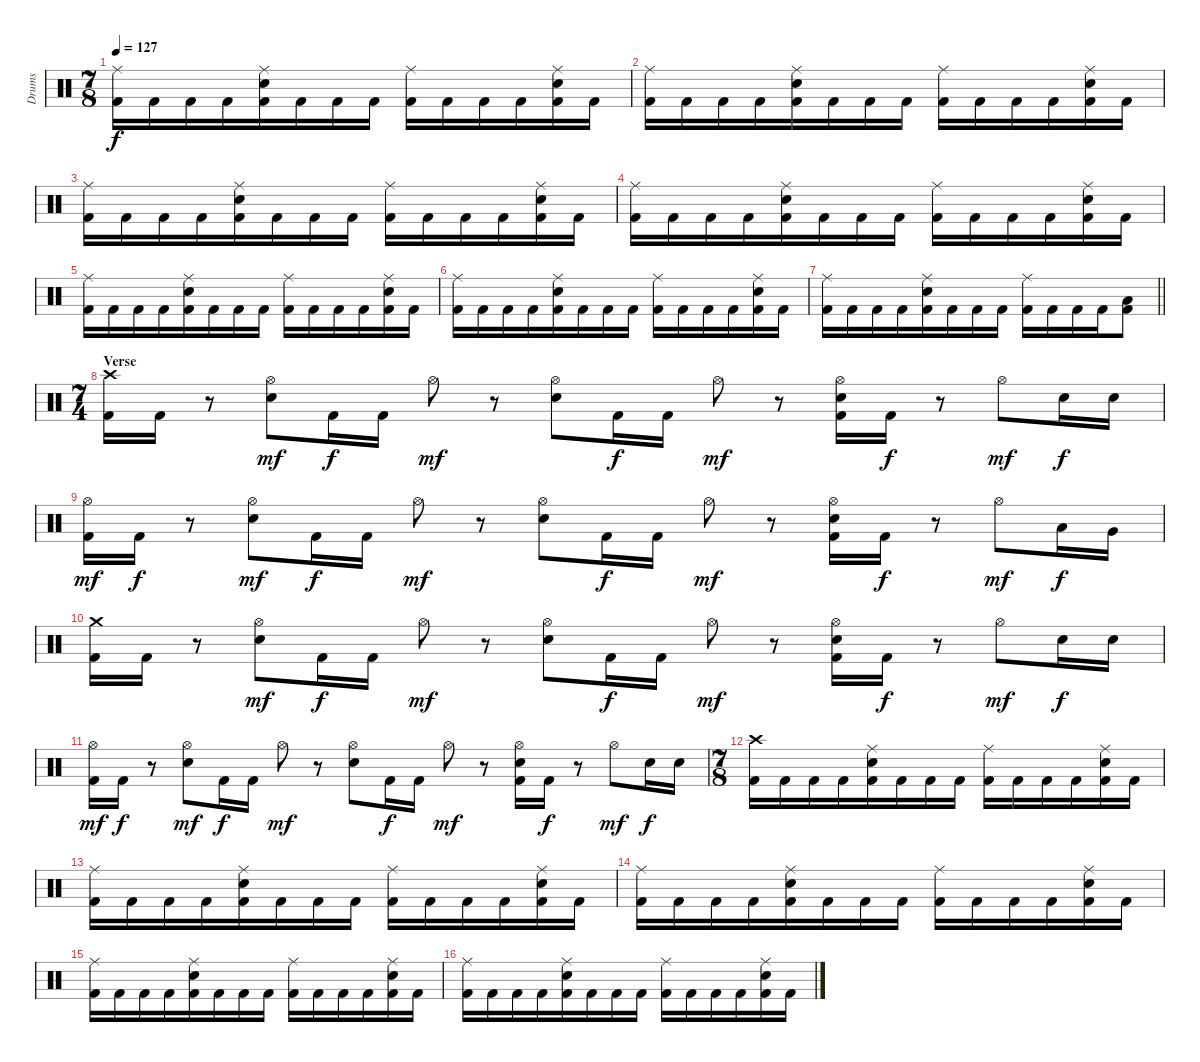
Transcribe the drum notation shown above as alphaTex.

\track ("Drums" "Drums") {instrument percussion}
\staff {score}
\articulation defaults
\ts (7 8)
\tempo 127
\clef neutral
\ks c
("Kick (hit) 2" "Ride (middle)").16{dy f} "Kick (hit) 2".16 "Kick (hit) 2".16 "Kick (hit) 2".16 ("Kick (hit) 2" "Ride (middle)" "Electric Snare (hit)").16 "Kick (hit) 2".16 "Kick (hit) 2".16 "Kick (hit) 2".16 ("Kick (hit) 2" "Ride (middle)").16 "Kick (hit) 2".16 "Kick (hit) 2".16 "Kick (hit) 2".16 ("Kick (hit) 2" "Ride (middle)" "Electric Snare (hit)").16 "Kick (hit) 2".16 |
("Kick (hit) 2" "Ride (middle)").16 "Kick (hit) 2".16 "Kick (hit) 2".16 "Kick (hit) 2".16 ("Kick (hit) 2" "Ride (middle)" "Electric Snare (hit)").16 "Kick (hit) 2".16 "Kick (hit) 2".16 "Kick (hit) 2".16 ("Kick (hit) 2" "Ride (middle)").16 "Kick (hit) 2".16 "Kick (hit) 2".16 "Kick (hit) 2".16 ("Kick (hit) 2" "Ride (middle)" "Electric Snare (hit)").16 "Kick (hit) 2".16 |
("Kick (hit) 2" "Ride (middle)").16 "Kick (hit) 2".16 "Kick (hit) 2".16 "Kick (hit) 2".16 ("Kick (hit) 2" "Ride (middle)" "Electric Snare (hit)").16 "Kick (hit) 2".16 "Kick (hit) 2".16 "Kick (hit) 2".16 ("Kick (hit) 2" "Ride (middle)").16 "Kick (hit) 2".16 "Kick (hit) 2".16 "Kick (hit) 2".16 ("Kick (hit) 2" "Ride (middle)" "Electric Snare (hit)").16 "Kick (hit) 2".16 |
("Kick (hit) 2" "Ride (middle)").16 "Kick (hit) 2".16 "Kick (hit) 2".16 "Kick (hit) 2".16 ("Kick (hit) 2" "Ride (middle)" "Electric Snare (hit)").16 "Kick (hit) 2".16 "Kick (hit) 2".16 "Kick (hit) 2".16 ("Kick (hit) 2" "Ride (middle)").16 "Kick (hit) 2".16 "Kick (hit) 2".16 "Kick (hit) 2".16 ("Kick (hit) 2" "Ride (middle)" "Electric Snare (hit)").16 "Kick (hit) 2".16 |
("Kick (hit) 2" "Ride (middle)").16 "Kick (hit) 2".16 "Kick (hit) 2".16 "Kick (hit) 2".16 ("Kick (hit) 2" "Ride (middle)" "Electric Snare (hit)").16 "Kick (hit) 2".16 "Kick (hit) 2".16 "Kick (hit) 2".16 ("Kick (hit) 2" "Ride (middle)").16 "Kick (hit) 2".16 "Kick (hit) 2".16 "Kick (hit) 2".16 ("Kick (hit) 2" "Ride (middle)" "Electric Snare (hit)").16 "Kick (hit) 2".16 |
("Kick (hit) 2" "Ride (middle)").16 "Kick (hit) 2".16 "Kick (hit) 2".16 "Kick (hit) 2".16 ("Kick (hit) 2" "Ride (middle)" "Electric Snare (hit)").16 "Kick (hit) 2".16 "Kick (hit) 2".16 "Kick (hit) 2".16 ("Kick (hit) 2" "Ride (middle)").16 "Kick (hit) 2".16 "Kick (hit) 2".16 "Kick (hit) 2".16 ("Kick (hit) 2" "Ride (middle)" "Electric Snare (hit)").16 "Kick (hit) 2".16 |
\barLineRight lightlight
("Kick (hit) 2" "Ride (middle)").16 "Kick (hit) 2".16 "Kick (hit) 2".16 "Kick (hit) 2".16 ("Kick (hit) 2" "Ride (middle)" "Electric Snare (hit)").16 "Kick (hit) 2".16 "Kick (hit) 2".16 "Kick (hit) 2".16 ("Kick (hit) 2" "Ride (middle)").16 "Kick (hit) 2".16 "Kick (hit) 2".16 "Kick (hit) 2".16 ("Kick (hit) 2" "Low Floor Tom (hit)").8 |
\ts (7 4)
\section ("" "Verse")
("Kick (hit) 2" "Crash high (hit)").16 "Kick (hit) 2".16 r.8 ("Hi-Hat (open)" "Electric Snare (hit)").8{dy mf} "Kick (hit) 2".16{dy f} "Kick (hit) 2".16 "Hi-Hat (open)".8{dy mf} r.8 ("Hi-Hat (open)" "Electric Snare (hit)").8 "Kick (hit) 2".16{dy f} "Kick (hit) 2".16 "Hi-Hat (open)".8{dy mf} r.8 ("Kick (hit) 2" "Hi-Hat (open)" "Electric Snare (hit)").16 "Kick (hit) 2".16{dy f} r.8 "Hi-Hat (open)".8{dy mf} "Electric Snare (hit)".16{dy f} "Electric Snare (hit)".16 |
("Kick (hit) 2" "Hi-Hat (open)").16{dy mf} "Kick (hit) 2".16{dy f} r.8 ("Hi-Hat (open)" "Electric Snare (hit)").8{dy mf} "Kick (hit) 2".16{dy f} "Kick (hit) 2".16 "Hi-Hat (open)".8{dy mf} r.8 ("Hi-Hat (open)" "Electric Snare (hit)").8 "Kick (hit) 2".16{dy f} "Kick (hit) 2".16 "Hi-Hat (open)".8{dy mf} r.8 ("Kick (hit) 2" "Hi-Hat (open)" "Electric Snare (hit)").16 "Kick (hit) 2".16{dy f} r.8 "Hi-Hat (open)".8{dy mf} "Low Tom (hit)".16{dy f} "Very Low Tom (hit)".16 |
("Kick (hit) 2" "Crash medium (hit)").16 "Kick (hit) 2".16 r.8 ("Hi-Hat (open)" "Electric Snare (hit)").8{dy mf} "Kick (hit) 2".16{dy f} "Kick (hit) 2".16 "Hi-Hat (open)".8{dy mf} r.8 ("Hi-Hat (open)" "Electric Snare (hit)").8 "Kick (hit) 2".16{dy f} "Kick (hit) 2".16 "Hi-Hat (open)".8{dy mf} r.8 ("Kick (hit) 2" "Hi-Hat (open)" "Electric Snare (hit)").16 "Kick (hit) 2".16{dy f} r.8 "Hi-Hat (open)".8{dy mf} "Electric Snare (hit)".16{dy f} "Electric Snare (hit)".16 |
("Kick (hit) 2" "Hi-Hat (open)").16{dy mf} "Kick (hit) 2".16{dy f} r.8 ("Hi-Hat (open)" "Electric Snare (hit)").8{dy mf} "Kick (hit) 2".16{dy f} "Kick (hit) 2".16 "Hi-Hat (open)".8{dy mf} r.8 ("Hi-Hat (open)" "Electric Snare (hit)").8 "Kick (hit) 2".16{dy f} "Kick (hit) 2".16 "Hi-Hat (open)".8{dy mf} r.8 ("Kick (hit) 2" "Hi-Hat (open)" "Electric Snare (hit)").16 "Kick (hit) 2".16{dy f} r.8 "Hi-Hat (open)".8{dy mf} "Electric Snare (hit)".16{dy f} "Electric Snare (hit)".16 |
\ts (7 8)
("Kick (hit) 2" "Crash high (hit)").16 "Kick (hit) 2".16 "Kick (hit) 2".16 "Kick (hit) 2".16 ("Kick (hit) 2" "Ride (middle)" "Electric Snare (hit)").16 "Kick (hit) 2".16 "Kick (hit) 2".16 "Kick (hit) 2".16 ("Kick (hit) 2" "Ride (middle)").16 "Kick (hit) 2".16 "Kick (hit) 2".16 "Kick (hit) 2".16 ("Kick (hit) 2" "Ride (middle)" "Electric Snare (hit)").16 "Kick (hit) 2".16 |
("Kick (hit) 2" "Ride (middle)").16 "Kick (hit) 2".16 "Kick (hit) 2".16 "Kick (hit) 2".16 ("Kick (hit) 2" "Ride (middle)" "Electric Snare (hit)").16 "Kick (hit) 2".16 "Kick (hit) 2".16 "Kick (hit) 2".16 ("Kick (hit) 2" "Ride (middle)").16 "Kick (hit) 2".16 "Kick (hit) 2".16 "Kick (hit) 2".16 ("Kick (hit) 2" "Ride (middle)" "Electric Snare (hit)").16 "Kick (hit) 2".16 |
("Kick (hit) 2" "Ride (middle)").16 "Kick (hit) 2".16 "Kick (hit) 2".16 "Kick (hit) 2".16 ("Kick (hit) 2" "Ride (middle)" "Electric Snare (hit)").16 "Kick (hit) 2".16 "Kick (hit) 2".16 "Kick (hit) 2".16 ("Kick (hit) 2" "Ride (middle)").16 "Kick (hit) 2".16 "Kick (hit) 2".16 "Kick (hit) 2".16 ("Kick (hit) 2" "Ride (middle)" "Electric Snare (hit)").16 "Kick (hit) 2".16 |
("Kick (hit) 2" "Ride (middle)").16 "Kick (hit) 2".16 "Kick (hit) 2".16 "Kick (hit) 2".16 ("Kick (hit) 2" "Ride (middle)" "Electric Snare (hit)").16 "Kick (hit) 2".16 "Kick (hit) 2".16 "Kick (hit) 2".16 ("Kick (hit) 2" "Ride (middle)").16 "Kick (hit) 2".16 "Kick (hit) 2".16 "Kick (hit) 2".16 ("Kick (hit) 2" "Ride (middle)" "Electric Snare (hit)").16 "Kick (hit) 2".16 |
("Kick (hit) 2" "Ride (middle)").16 "Kick (hit) 2".16 "Kick (hit) 2".16 "Kick (hit) 2".16 ("Kick (hit) 2" "Ride (middle)" "Electric Snare (hit)").16 "Kick (hit) 2".16 "Kick (hit) 2".16 "Kick (hit) 2".16 ("Kick (hit) 2" "Ride (middle)").16 "Kick (hit) 2".16 "Kick (hit) 2".16 "Kick (hit) 2".16 ("Kick (hit) 2" "Ride (middle)" "Electric Snare (hit)").16 "Kick (hit) 2".16
